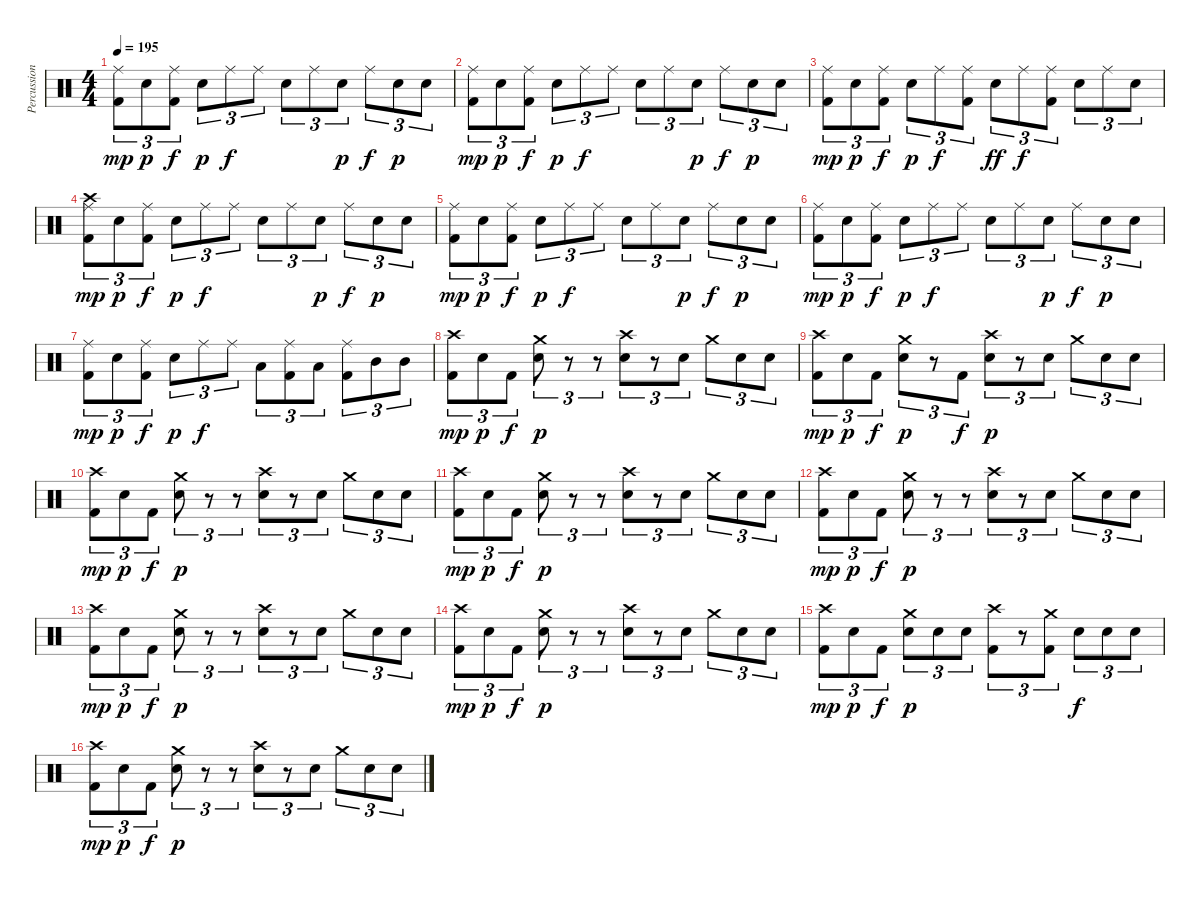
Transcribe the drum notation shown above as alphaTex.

\track ("Percussion" "Percussion") {instrument percussion}
\staff {score}
\articulation defaults
\ts (4 4)
\tempo 195
\clef neutral
\ks c
("Ride (middle)" "Kick (hit) 2").8{tu (3 2) dy mp} "Snare (hit) 2".8{tu (3 2) dy p} ("Ride (middle)" "Kick (hit) 2").8{tu (3 2) dy f} "Snare (hit) 2".8{tu (3 2) dy p} "Ride (middle)".8{tu (3 2) dy f} "Ride (middle)".8{tu (3 2)} "Snare (hit) 2".8{tu (3 2)} "Ride (middle)".8{tu (3 2)} "Snare (hit) 2".8{tu (3 2) dy p} "Ride (middle)".8{tu (3 2) dy f} "Snare (hit) 2".8{tu (3 2) dy p} "Snare (hit) 2".8{tu (3 2)} |
("Ride (middle)" "Kick (hit) 2").8{tu (3 2) dy mp} "Snare (hit) 2".8{tu (3 2) dy p} ("Ride (middle)" "Kick (hit) 2").8{tu (3 2) dy f} "Snare (hit) 2".8{tu (3 2) dy p} "Ride (middle)".8{tu (3 2) dy f} "Ride (middle)".8{tu (3 2)} "Snare (hit) 2".8{tu (3 2)} "Ride (middle)".8{tu (3 2)} "Snare (hit) 2".8{tu (3 2) dy p} "Ride (middle)".8{tu (3 2) dy f} "Snare (hit) 2".8{tu (3 2) dy p} "Snare (hit) 2".8{tu (3 2)} |
("Ride (middle)" "Kick (hit) 2").8{tu (3 2) dy mp} "Snare (hit) 2".8{tu (3 2) dy p} ("Ride (middle)" "Kick (hit) 2").8{tu (3 2) dy f} "Snare (hit) 2".8{tu (3 2) dy p} "Ride (middle)".8{tu (3 2) dy f} ("Ride (middle)" "Kick (hit) 2").8{tu (3 2)} "Snare (hit) 2".8{tu (3 2) dy ff} "Ride (middle)".8{tu (3 2) dy f} ("Ride (middle)" "Kick (hit) 2").8{tu (3 2)} "Snare (hit) 2".8{tu (3 2)} "Ride (middle)".8{tu (3 2)} "Snare (hit) 2".8{tu (3 2)} |
("Crash high (hit)" "Ride (middle)" "Kick (hit) 2").8{tu (3 2) dy mp} "Snare (hit) 2".8{tu (3 2) dy p} ("Ride (middle)" "Kick (hit) 2").8{tu (3 2) dy f} "Snare (hit) 2".8{tu (3 2) dy p} "Ride (middle)".8{tu (3 2) dy f} "Ride (middle)".8{tu (3 2)} "Snare (hit) 2".8{tu (3 2)} "Ride (middle)".8{tu (3 2)} "Snare (hit) 2".8{tu (3 2) dy p} "Ride (middle)".8{tu (3 2) dy f} "Snare (hit) 2".8{tu (3 2) dy p} "Snare (hit) 2".8{tu (3 2)} |
("Ride (middle)" "Kick (hit) 2").8{tu (3 2) dy mp} "Snare (hit) 2".8{tu (3 2) dy p} ("Ride (middle)" "Kick (hit) 2").8{tu (3 2) dy f} "Snare (hit) 2".8{tu (3 2) dy p} "Ride (middle)".8{tu (3 2) dy f} "Ride (middle)".8{tu (3 2)} "Snare (hit) 2".8{tu (3 2)} "Ride (middle)".8{tu (3 2)} "Snare (hit) 2".8{tu (3 2) dy p} "Ride (middle)".8{tu (3 2) dy f} "Snare (hit) 2".8{tu (3 2) dy p} "Snare (hit) 2".8{tu (3 2)} |
("Ride (middle)" "Kick (hit) 2").8{tu (3 2) dy mp} "Snare (hit) 2".8{tu (3 2) dy p} ("Ride (middle)" "Kick (hit) 2").8{tu (3 2) dy f} "Snare (hit) 2".8{tu (3 2) dy p} "Ride (middle)".8{tu (3 2) dy f} "Ride (middle)".8{tu (3 2)} "Snare (hit) 2".8{tu (3 2)} "Ride (middle)".8{tu (3 2)} "Snare (hit) 2".8{tu (3 2) dy p} "Ride (middle)".8{tu (3 2) dy f} "Snare (hit) 2".8{tu (3 2) dy p} "Snare (hit) 2".8{tu (3 2)} |
("Ride (middle)" "Kick (hit) 2").8{tu (3 2) dy mp} "Snare (hit) 2".8{tu (3 2) dy p} ("Ride (middle)" "Kick (hit) 2").8{tu (3 2) dy f} "Snare (hit) 2".8{tu (3 2) dy p} "Ride (middle)".8{tu (3 2) dy f} "Ride (middle)".8{tu (3 2)} "Low Tom (hit)".8{tu (3 2)} ("Ride (middle)" "Kick (hit) 2").8{tu (3 2)} "Low Tom (hit)".8{tu (3 2)} ("Ride (middle)" "Kick (hit) 2").8{tu (3 2)} "Mid Tom (hit)".8{tu (3 2)} "Mid Tom (hit)".8{tu (3 2)} |
("Crash high (hit)" "Kick (hit) 2").8{tu (3 2) dy mp} "Snare (hit) 2".8{tu (3 2) dy p} "Kick (hit) 2".8{tu (3 2) dy f} ("Crash medium (hit)" "Snare (hit) 2").8{tu (3 2) dy p} r.8{tu (3 2)} r.8{tu (3 2)} ("Crash high (hit)" "Snare (hit) 2").8{tu (3 2)} r.8{tu (3 2)} "Snare (hit) 2".8{tu (3 2)} "Crash medium (hit)".8{tu (3 2)} "Snare (hit) 2".8{tu (3 2)} "Snare (hit) 2".8{tu (3 2)} |
("Crash high (hit)" "Kick (hit) 2").8{tu (3 2) dy mp} "Snare (hit) 2".8{tu (3 2) dy p} "Kick (hit) 2".8{tu (3 2) dy f} ("Crash medium (hit)" "Snare (hit) 2").8{tu (3 2) dy p} r.8{tu (3 2)} "Kick (hit) 2".8{tu (3 2) dy f} ("Crash high (hit)" "Snare (hit) 2").8{tu (3 2) dy p} r.8{tu (3 2)} "Snare (hit) 2".8{tu (3 2)} "Crash medium (hit)".8{tu (3 2)} "Snare (hit) 2".8{tu (3 2)} "Snare (hit) 2".8{tu (3 2)} |
("Crash high (hit)" "Kick (hit) 2").8{tu (3 2) dy mp} "Snare (hit) 2".8{tu (3 2) dy p} "Kick (hit) 2".8{tu (3 2) dy f} ("Crash medium (hit)" "Snare (hit) 2").8{tu (3 2) dy p} r.8{tu (3 2)} r.8{tu (3 2)} ("Crash high (hit)" "Snare (hit) 2").8{tu (3 2)} r.8{tu (3 2)} "Snare (hit) 2".8{tu (3 2)} "Crash medium (hit)".8{tu (3 2)} "Snare (hit) 2".8{tu (3 2)} "Snare (hit) 2".8{tu (3 2)} |
("Crash high (hit)" "Kick (hit) 2").8{tu (3 2) dy mp} "Snare (hit) 2".8{tu (3 2) dy p} "Kick (hit) 2".8{tu (3 2) dy f} ("Crash medium (hit)" "Snare (hit) 2").8{tu (3 2) dy p} r.8{tu (3 2)} r.8{tu (3 2)} ("Crash high (hit)" "Snare (hit) 2").8{tu (3 2)} r.8{tu (3 2)} "Snare (hit) 2".8{tu (3 2)} "Crash medium (hit)".8{tu (3 2)} "Snare (hit) 2".8{tu (3 2)} "Snare (hit) 2".8{tu (3 2)} |
("Crash high (hit)" "Kick (hit) 2").8{tu (3 2) dy mp} "Snare (hit) 2".8{tu (3 2) dy p} "Kick (hit) 2".8{tu (3 2) dy f} ("Crash medium (hit)" "Snare (hit) 2").8{tu (3 2) dy p} r.8{tu (3 2)} r.8{tu (3 2)} ("Crash high (hit)" "Snare (hit) 2").8{tu (3 2)} r.8{tu (3 2)} "Snare (hit) 2".8{tu (3 2)} "Crash medium (hit)".8{tu (3 2)} "Snare (hit) 2".8{tu (3 2)} "Snare (hit) 2".8{tu (3 2)} |
("Crash high (hit)" "Kick (hit) 2").8{tu (3 2) dy mp} "Snare (hit) 2".8{tu (3 2) dy p} "Kick (hit) 2".8{tu (3 2) dy f} ("Crash medium (hit)" "Snare (hit) 2").8{tu (3 2) dy p} r.8{tu (3 2)} r.8{tu (3 2)} ("Crash high (hit)" "Snare (hit) 2").8{tu (3 2)} r.8{tu (3 2)} "Snare (hit) 2".8{tu (3 2)} "Crash medium (hit)".8{tu (3 2)} "Snare (hit) 2".8{tu (3 2)} "Snare (hit) 2".8{tu (3 2)} |
("Crash high (hit)" "Kick (hit) 2").8{tu (3 2) dy mp} "Snare (hit) 2".8{tu (3 2) dy p} "Kick (hit) 2".8{tu (3 2) dy f} ("Crash medium (hit)" "Snare (hit) 2").8{tu (3 2) dy p} r.8{tu (3 2)} r.8{tu (3 2)} ("Crash high (hit)" "Snare (hit) 2").8{tu (3 2)} r.8{tu (3 2)} "Snare (hit) 2".8{tu (3 2)} "Crash medium (hit)".8{tu (3 2)} "Snare (hit) 2".8{tu (3 2)} "Snare (hit) 2".8{tu (3 2)} |
("Crash high (hit)" "Kick (hit) 2").8{tu (3 2) dy mp} "Snare (hit) 2".8{tu (3 2) dy p} "Kick (hit) 2".8{tu (3 2) dy f} ("Crash medium (hit)" "Snare (hit) 2").8{tu (3 2) dy p} "Snare (hit) 2".8{tu (3 2)} "Snare (hit) 2".8{tu (3 2)} ("Crash high (hit)" "Kick (hit) 2").8{tu (3 2)} r.8{tu (3 2)} ("Crash medium (hit)" "Kick (hit) 2").8{tu (3 2)} "Snare (hit) 2".8{tu (3 2) dy f} "Snare (hit) 2".8{tu (3 2)} "Snare (hit) 2".8{tu (3 2)} |
("Crash high (hit)" "Kick (hit) 2").8{tu (3 2) dy mp} "Snare (hit) 2".8{tu (3 2) dy p} "Kick (hit) 2".8{tu (3 2) dy f} ("Crash medium (hit)" "Snare (hit) 2").8{tu (3 2) dy p} r.8{tu (3 2)} r.8{tu (3 2)} ("Crash high (hit)" "Snare (hit) 2").8{tu (3 2)} r.8{tu (3 2)} "Snare (hit) 2".8{tu (3 2)} "Crash medium (hit)".8{tu (3 2)} "Snare (hit) 2".8{tu (3 2)} "Snare (hit) 2".8{tu (3 2)}
